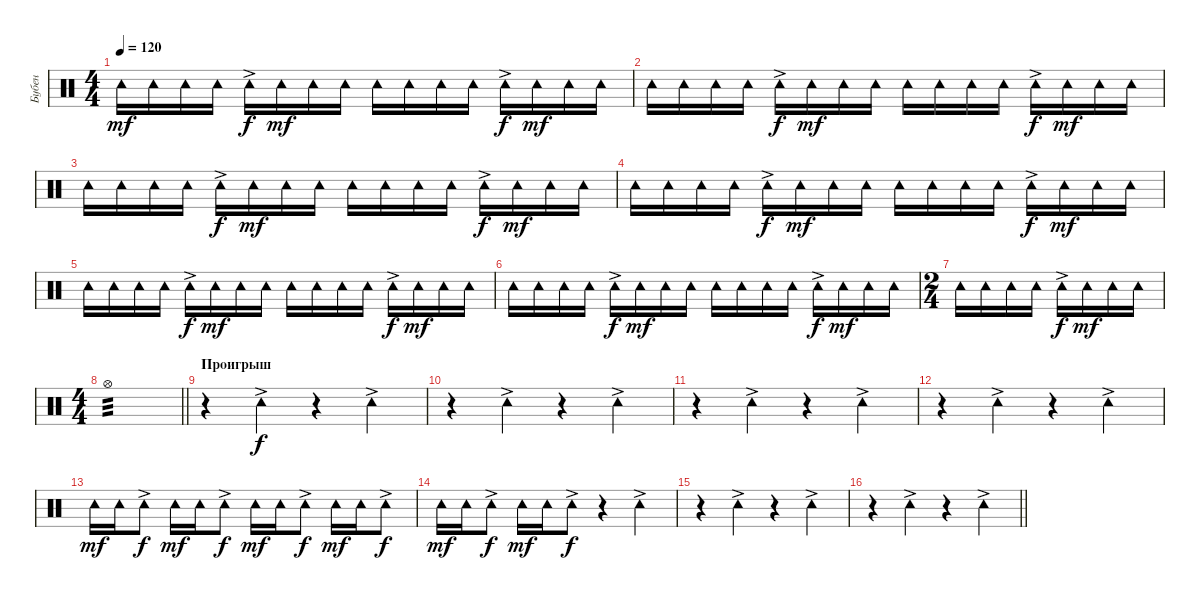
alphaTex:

\track ("Бубен" "Бубен") {instrument percussion}
\staff {score}
\articulation defaults
\ts (4 4)
\tempo 120
\clef neutral
\ks c "Tambourine (hit)".16{dy mf} "Tambourine (hit)".16 "Tambourine (hit)".16 "Tambourine (hit)".16 "Tambourine (hit)"{ac}.16{dy f} "Tambourine (hit)".16{dy mf} "Tambourine (hit)".16 "Tambourine (hit)".16 "Tambourine (hit)".16 "Tambourine (hit)".16 "Tambourine (hit)".16 "Tambourine (hit)".16 "Tambourine (hit)"{ac}.16{dy f} "Tambourine (hit)".16{dy mf} "Tambourine (hit)".16 "Tambourine (hit)".16
|
"Tambourine (hit)".16 "Tambourine (hit)".16 "Tambourine (hit)".16 "Tambourine (hit)".16 "Tambourine (hit)"{ac}.16{dy f} "Tambourine (hit)".16{dy mf} "Tambourine (hit)".16 "Tambourine (hit)".16 "Tambourine (hit)".16 "Tambourine (hit)".16 "Tambourine (hit)".16 "Tambourine (hit)".16 "Tambourine (hit)"{ac}.16{dy f} "Tambourine (hit)".16{dy mf} "Tambourine (hit)".16 "Tambourine (hit)".16 |
"Tambourine (hit)".16 "Tambourine (hit)".16 "Tambourine (hit)".16 "Tambourine (hit)".16 "Tambourine (hit)"{ac}.16{dy f} "Tambourine (hit)".16{dy mf} "Tambourine (hit)".16 "Tambourine (hit)".16 "Tambourine (hit)".16 "Tambourine (hit)".16 "Tambourine (hit)".16 "Tambourine (hit)".16 "Tambourine (hit)"{ac}.16{dy f} "Tambourine (hit)".16{dy mf} "Tambourine (hit)".16 "Tambourine (hit)".16 |
"Tambourine (hit)".16 "Tambourine (hit)".16 "Tambourine (hit)".16 "Tambourine (hit)".16 "Tambourine (hit)"{ac}.16{dy f} "Tambourine (hit)".16{dy mf} "Tambourine (hit)".16 "Tambourine (hit)".16 "Tambourine (hit)".16 "Tambourine (hit)".16 "Tambourine (hit)".16 "Tambourine (hit)".16 "Tambourine (hit)"{ac}.16{dy f} "Tambourine (hit)".16{dy mf} "Tambourine (hit)".16 "Tambourine (hit)".16 |
"Tambourine (hit)".16 "Tambourine (hit)".16 "Tambourine (hit)".16 "Tambourine (hit)".16 "Tambourine (hit)"{ac}.16{dy f} "Tambourine (hit)".16{dy mf} "Tambourine (hit)".16 "Tambourine (hit)".16 "Tambourine (hit)".16 "Tambourine (hit)".16 "Tambourine (hit)".16 "Tambourine (hit)".16 "Tambourine (hit)"{ac}.16{dy f} "Tambourine (hit)".16{dy mf} "Tambourine (hit)".16 "Tambourine (hit)".16 |
"Tambourine (hit)".16 "Tambourine (hit)".16 "Tambourine (hit)".16 "Tambourine (hit)".16 "Tambourine (hit)"{ac}.16{dy f} "Tambourine (hit)".16{dy mf} "Tambourine (hit)".16 "Tambourine (hit)".16 "Tambourine (hit)".16 "Tambourine (hit)".16 "Tambourine (hit)".16 "Tambourine (hit)".16 "Tambourine (hit)"{ac}.16{dy f} "Tambourine (hit)".16{dy mf} "Tambourine (hit)".16 "Tambourine (hit)".16 |
\ts (2 4)
"Tambourine (hit)".16 "Tambourine (hit)".16 "Tambourine (hit)".16 "Tambourine (hit)".16 "Tambourine (hit)"{ac}.16{dy f} "Tambourine (hit)".16{dy mf} "Tambourine (hit)".16 "Tambourine (hit)".16 |
\ts (4 4)
\barLineRight lightlight "Hi-Hat (open)".1{tp 3}
|
\section ("" "Проигрыш")
r.4 "Tambourine (hit)"{ac}.4{dy f} r.4 "Tambourine (hit)"{ac}.4 |
r.4 "Tambourine (hit)"{ac}.4 r.4 "Tambourine (hit)"{ac}.4 |
r.4 "Tambourine (hit)"{ac}.4 r.4 "Tambourine (hit)"{ac}.4 |
r.4 "Tambourine (hit)"{ac}.4 r.4 "Tambourine (hit)"{ac}.4 |
"Tambourine (hit)".16{dy mf} "Tambourine (hit)".16 "Tambourine (hit)"{ac}.8{dy f} "Tambourine (hit)".16{dy mf} "Tambourine (hit)".16 "Tambourine (hit)"{ac}.8{dy f} "Tambourine (hit)".16{dy mf} "Tambourine (hit)".16 "Tambourine (hit)"{ac}.8{dy f} "Tambourine (hit)".16{dy mf} "Tambourine (hit)".16 "Tambourine (hit)"{ac}.8{dy f} |
"Tambourine (hit)".16{dy mf} "Tambourine (hit)".16 "Tambourine (hit)"{ac}.8{dy f} "Tambourine (hit)".16{dy mf} "Tambourine (hit)".16 "Tambourine (hit)"{ac}.8{dy f} r.4 "Tambourine (hit)"{ac}.4 |
r.4 "Tambourine (hit)"{ac}.4 r.4 "Tambourine (hit)"{ac}.4 |
\barLineRight lightlight
r.4 "Tambourine (hit)"{ac}.4 r.4 "Tambourine (hit)"{ac}.4
